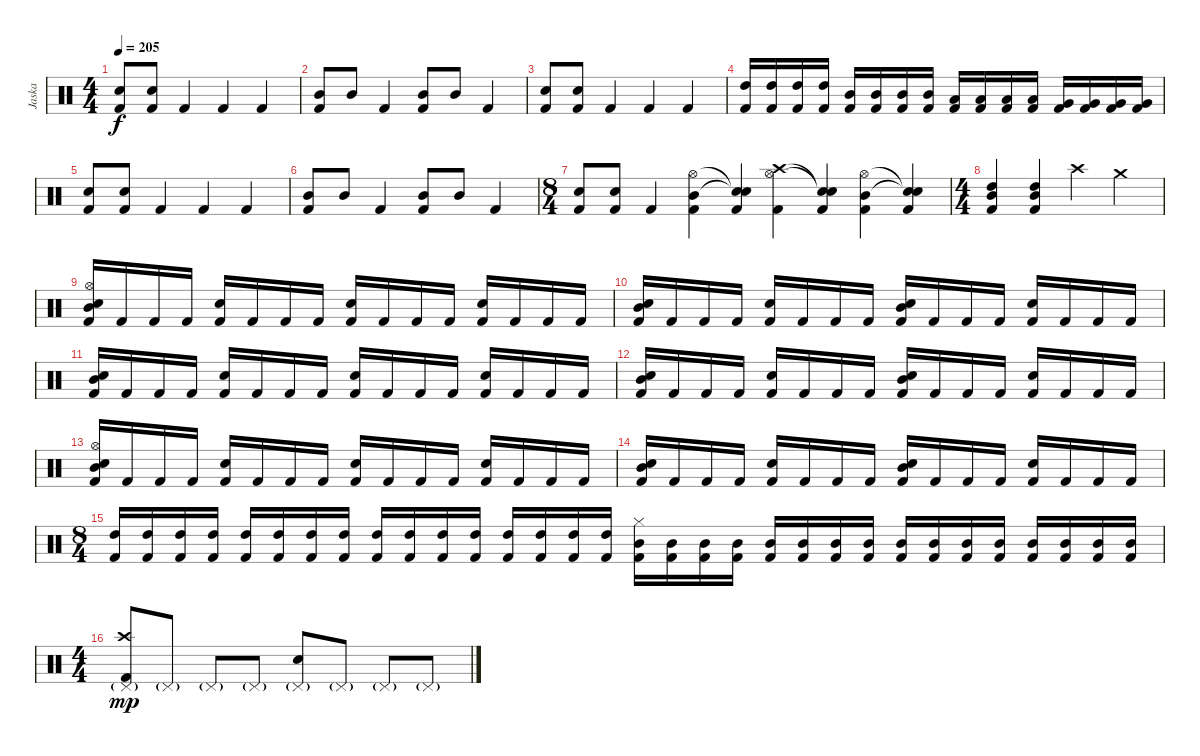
\track ("Jaska" "Jaska") {instrument percussion}
\staff {score}
\articulation defaults
\ts (4 4)
\tempo 205
\clef neutral
\ks c
("Kick (hit) 2" "Snare (hit) 2").8{dy f} ("Kick (hit) 2" "Snare (hit) 2").8 "Kick (hit) 2".4 "Kick (hit) 2".4 "Kick (hit) 2".4 |
("Kick (hit) 2" "Mid Tom (hit)").8 "Mid Tom (hit)".8 "Kick (hit) 2".4 ("Kick (hit) 2" "Mid Tom (hit)").8 "Mid Tom (hit)".8 "Kick (hit) 2".4 |
("Kick (hit) 2" "Snare (hit) 2").8 ("Kick (hit) 2" "Snare (hit) 2").8 "Kick (hit) 2".4 "Kick (hit) 2".4 "Kick (hit) 2".4 |
("Kick (hit) 2" "High Tom (hit)").16 ("Kick (hit) 2" "High Tom (hit)").16 ("Kick (hit) 2" "High Tom (hit)").16 ("Kick (hit) 2" "High Tom (hit)").16 ("Kick (hit) 2" "Mid Tom (hit)").16 ("Kick (hit) 2" "Mid Tom (hit)").16 ("Kick (hit) 2" "Mid Tom (hit)").16 ("Kick (hit) 2" "Mid Tom (hit)").16 ("Kick (hit) 2" "Low Tom (hit)").16 ("Kick (hit) 2" "Low Tom (hit)").16 ("Kick (hit) 2" "Low Tom (hit)").16 ("Kick (hit) 2" "Low Tom (hit)").16 ("Kick (hit) 2" "Very Low Tom (hit)").16 ("Kick (hit) 2" "Very Low Tom (hit)").16 ("Kick (hit) 2" "Very Low Tom (hit)").16 ("Kick (hit) 2" "Very Low Tom (hit)").16 |
("Kick (hit) 2" "Snare (hit) 2").8 ("Kick (hit) 2" "Snare (hit) 2").8 "Kick (hit) 2".4 "Kick (hit) 2".4 "Kick (hit) 2".4 |
("Kick (hit) 2" "Mid Tom (hit)").8 "Mid Tom (hit)".8 "Kick (hit) 2".4 ("Kick (hit) 2" "Mid Tom (hit)").8 "Mid Tom (hit)".8 "Kick (hit) 2".4 |
\ts (8 4)
("Kick (hit) 2" "Snare (hit) 2").8 ("Kick (hit) 2" "Snare (hit) 2").8 "Kick (hit) 2".4 ("Kick (hit) 2" "Hi-Hat (open)" "Mid Tom (hit)").4 ("Kick (hit) 2" "Snare (hit)"{t} "Snare (hit)"{t}).4 ("Kick (hit) 2" "Crash high (hit)" "Hi-Hat (open)").4 ("Kick (hit) 2" "Snare (hit)"{t} "Snare (hit)"{t}).4 ("Kick (hit) 2" "Hi-Hat (open)" "Mid Tom (hit)").4 ("Kick (hit) 2" "Snare (hit)"{t} "Snare (hit)"{t}).4 |
\ts (4 4)
("Kick (hit) 2" "Mid Tom (hit)" "High Tom (hit)").4 ("Kick (hit) 2" "Mid Tom (hit)" "High Tom (hit)").4 "Crash high (hit)".4 "Crash medium (hit)".4 |
("Kick (hit) 2" "Electric Snare (hit)" "Mid Tom (hit)" "Hi-Hat (open)").16 "Kick (hit) 2".16 "Kick (hit) 2".16 "Kick (hit) 2".16 ("Kick (hit) 2" "Electric Snare (hit)").16 "Kick (hit) 2".16 "Kick (hit) 2".16 "Kick (hit) 2".16 ("Kick (hit) 2" "Electric Snare (hit)").16 "Kick (hit) 2".16 "Kick (hit) 2".16 "Kick (hit) 2".16 ("Kick (hit) 2" "Electric Snare (hit)").16 "Kick (hit) 2".16 "Kick (hit) 2".16 "Kick (hit) 2".16 |
("Kick (hit) 2" "Electric Snare (hit)" "Mid Tom (hit)").16 "Kick (hit) 2".16 "Kick (hit) 2".16 "Kick (hit) 2".16 ("Kick (hit) 2" "Electric Snare (hit)").16 "Kick (hit) 2".16 "Kick (hit) 2".16 "Kick (hit) 2".16 ("Kick (hit) 2" "Electric Snare (hit)" "Mid Tom (hit)").16 "Kick (hit) 2".16 "Kick (hit) 2".16 "Kick (hit) 2".16 ("Kick (hit) 2" "Electric Snare (hit)").16 "Kick (hit) 2".16 "Kick (hit) 2".16 "Kick (hit) 2".16 |
("Kick (hit) 2" "Electric Snare (hit)" "Mid Tom (hit)").16 "Kick (hit) 2".16 "Kick (hit) 2".16 "Kick (hit) 2".16 ("Kick (hit) 2" "Electric Snare (hit)").16 "Kick (hit) 2".16 "Kick (hit) 2".16 "Kick (hit) 2".16 ("Kick (hit) 2" "Electric Snare (hit)").16 "Kick (hit) 2".16 "Kick (hit) 2".16 "Kick (hit) 2".16 ("Kick (hit) 2" "Electric Snare (hit)").16 "Kick (hit) 2".16 "Kick (hit) 2".16 "Kick (hit) 2".16 |
("Kick (hit) 2" "Electric Snare (hit)" "Mid Tom (hit)").16 "Kick (hit) 2".16 "Kick (hit) 2".16 "Kick (hit) 2".16 ("Kick (hit) 2" "Electric Snare (hit)").16 "Kick (hit) 2".16 "Kick (hit) 2".16 "Kick (hit) 2".16 ("Kick (hit) 2" "Electric Snare (hit)" "Mid Tom (hit)").16 "Kick (hit) 2".16 "Kick (hit) 2".16 "Kick (hit) 2".16 ("Kick (hit) 2" "Electric Snare (hit)").16 "Kick (hit) 2".16 "Kick (hit) 2".16 "Kick (hit) 2".16 |
("Kick (hit) 2" "Electric Snare (hit)" "Mid Tom (hit)" "Hi-Hat (open)").16 "Kick (hit) 2".16 "Kick (hit) 2".16 "Kick (hit) 2".16 ("Kick (hit) 2" "Electric Snare (hit)").16 "Kick (hit) 2".16 "Kick (hit) 2".16 "Kick (hit) 2".16 ("Kick (hit) 2" "Electric Snare (hit)").16 "Kick (hit) 2".16 "Kick (hit) 2".16 "Kick (hit) 2".16 ("Kick (hit) 2" "Electric Snare (hit)").16 "Kick (hit) 2".16 "Kick (hit) 2".16 "Kick (hit) 2".16 |
("Kick (hit) 2" "Electric Snare (hit)" "Mid Tom (hit)").16 "Kick (hit) 2".16 "Kick (hit) 2".16 "Kick (hit) 2".16 ("Kick (hit) 2" "Electric Snare (hit)").16 "Kick (hit) 2".16 "Kick (hit) 2".16 "Kick (hit) 2".16 ("Kick (hit) 2" "Electric Snare (hit)" "Mid Tom (hit)").16 "Kick (hit) 2".16 "Kick (hit) 2".16 "Kick (hit) 2".16 ("Kick (hit) 2" "Electric Snare (hit)").16 "Kick (hit) 2".16 "Kick (hit) 2".16 "Kick (hit) 2".16 |
\ts (8 4)
("Kick (hit) 2" "High Tom (hit)").16 ("Kick (hit) 2" "High Tom (hit)").16 ("Kick (hit) 2" "High Tom (hit)").16 ("Kick (hit) 2" "High Tom (hit)").16 ("Kick (hit) 2" "High Tom (hit)").16 ("Kick (hit) 2" "High Tom (hit)").16 ("Kick (hit) 2" "High Tom (hit)").16 ("Kick (hit) 2" "High Tom (hit)").16 ("Kick (hit) 2" "High Tom (hit)").16 ("Kick (hit) 2" "High Tom (hit)").16 ("Kick (hit) 2" "High Tom (hit)").16 ("Kick (hit) 2" "High Tom (hit)").16 ("Kick (hit) 2" "High Tom (hit)").16 ("Kick (hit) 2" "High Tom (hit)").16 ("Kick (hit) 2" "High Tom (hit)").16 ("Kick (hit) 2" "High Tom (hit)").16 ("Kick (hit) 2" "Mid Tom (hit)" "Hi-Hat (closed)").16 ("Kick (hit) 2" "Mid Tom (hit)").16 ("Kick (hit) 2" "Mid Tom (hit)").16 ("Kick (hit) 2" "Mid Tom (hit)").16 ("Kick (hit) 2" "Mid Tom (hit)").16 ("Kick (hit) 2" "Mid Tom (hit)").16 ("Kick (hit) 2" "Mid Tom (hit)").16 ("Kick (hit) 2" "Mid Tom (hit)").16 ("Kick (hit) 2" "Mid Tom (hit)").16 ("Kick (hit) 2" "Mid Tom (hit)").16 ("Kick (hit) 2" "Mid Tom (hit)").16 ("Kick (hit) 2" "Mid Tom (hit)").16 ("Kick (hit) 2" "Mid Tom (hit)").16 ("Kick (hit) 2" "Mid Tom (hit)").16 ("Kick (hit) 2" "Mid Tom (hit)").16 ("Kick (hit) 2" "Mid Tom (hit)").16 |
\ts (4 4)
("Kick (hit) 2" "Pedal Hi-Hat (hit)"{g} "Crash high (hit)").8{dy mp} "Pedal Hi-Hat (hit)"{g}.8 "Pedal Hi-Hat (hit)"{g}.8 "Pedal Hi-Hat (hit)"{g}.8 ("Pedal Hi-Hat (hit)"{g} "Electric Snare (hit)").8 "Pedal Hi-Hat (hit)"{g}.8 "Pedal Hi-Hat (hit)"{g}.8 "Pedal Hi-Hat (hit)"{g}.8
